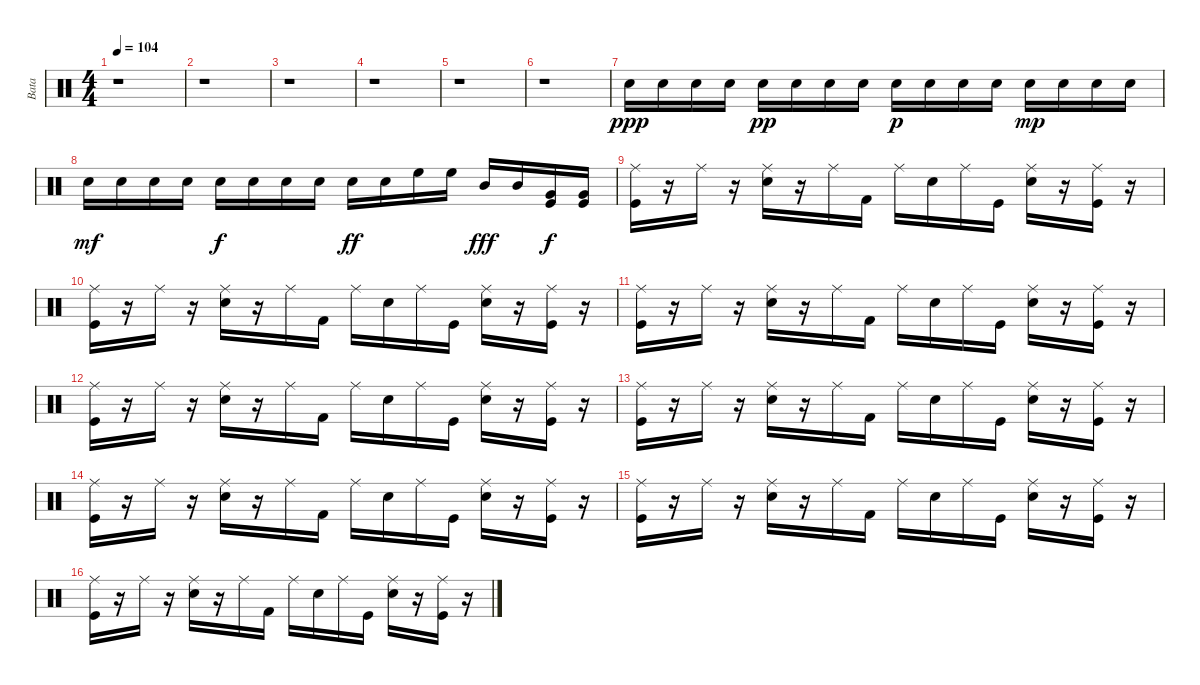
\track ("Bata" "Bata") {instrument percussion}
\staff {score}
\articulation defaults
\ts (4 4)
\tempo 104
\clef neutral
\ks c
r.1{dy ppp} |
r.1 |
r.1 |
r.1 |
r.1 |
r.1 |
"Electric Snare (hit)".16 "Electric Snare (hit)".16 "Electric Snare (hit)".16 "Electric Snare (hit)".16 "Electric Snare (hit)".16{dy pp} "Electric Snare (hit)".16 "Electric Snare (hit)".16 "Electric Snare (hit)".16 "Electric Snare (hit)".16{dy p} "Electric Snare (hit)".16 "Electric Snare (hit)".16 "Electric Snare (hit)".16 "Electric Snare (hit)".16{dy mp} "Electric Snare (hit)".16 "Electric Snare (hit)".16 "Electric Snare (hit)".16 |
"Electric Snare (hit)".16{dy mf} "Electric Snare (hit)".16 "Electric Snare (hit)".16 "Electric Snare (hit)".16 "Electric Snare (hit)".16{dy f} "Electric Snare (hit)".16 "Electric Snare (hit)".16 "Electric Snare (hit)".16 "Electric Snare (hit)".16{dy ff} "Electric Snare (hit)".16 "High Floor Tom (hit)".16 "High Floor Tom (hit)".16 "Mid Tom (hit)".16{dy fff} "Mid Tom (hit)".16 ("Very Low Tom (hit)" "Kick (hit)").16{dy f} ("Very Low Tom (hit)" "Kick (hit)").16 |
("Ride (middle)" "Kick (hit)").16 r.16 "Ride (middle)".16 r.16 ("Ride (middle)" "Electric Snare (hit)").16 r.16 "Ride (middle)".16 "Kick (hit) 2".16 "Ride (middle)".16 "Electric Snare (hit)".16 "Ride (middle)".16 "Kick (hit)".16 ("Ride (middle)" "Electric Snare (hit)").16 r.16 ("Ride (middle)" "Kick (hit)").16 r.16 |
("Ride (middle)" "Kick (hit)").16 r.16 "Ride (middle)".16 r.16 ("Ride (middle)" "Electric Snare (hit)").16 r.16 "Ride (middle)".16 "Kick (hit) 2".16 "Ride (middle)".16 "Electric Snare (hit)".16 "Ride (middle)".16 "Kick (hit)".16 ("Ride (middle)" "Electric Snare (hit)").16 r.16 ("Ride (middle)" "Kick (hit)").16 r.16 |
("Ride (middle)" "Kick (hit)").16 r.16 "Ride (middle)".16 r.16 ("Ride (middle)" "Electric Snare (hit)").16 r.16 "Ride (middle)".16 "Kick (hit) 2".16 "Ride (middle)".16 "Electric Snare (hit)".16 "Ride (middle)".16 "Kick (hit)".16 ("Ride (middle)" "Electric Snare (hit)").16 r.16 ("Ride (middle)" "Kick (hit)").16 r.16 |
("Ride (middle)" "Kick (hit)").16 r.16 "Ride (middle)".16 r.16 ("Ride (middle)" "Electric Snare (hit)").16 r.16 "Ride (middle)".16 "Kick (hit) 2".16 "Ride (middle)".16 "Electric Snare (hit)".16 "Ride (middle)".16 "Kick (hit)".16 ("Ride (middle)" "Electric Snare (hit)").16 r.16 ("Ride (middle)" "Kick (hit)").16 r.16 |
("Ride (middle)" "Kick (hit)").16 r.16 "Ride (middle)".16 r.16 ("Ride (middle)" "Electric Snare (hit)").16 r.16 "Ride (middle)".16 "Kick (hit) 2".16 "Ride (middle)".16 "Electric Snare (hit)".16 "Ride (middle)".16 "Kick (hit)".16 ("Ride (middle)" "Electric Snare (hit)").16 r.16 ("Ride (middle)" "Kick (hit)").16 r.16 |
("Ride (middle)" "Kick (hit)").16 r.16 "Ride (middle)".16 r.16 ("Ride (middle)" "Electric Snare (hit)").16 r.16 "Ride (middle)".16 "Kick (hit) 2".16 "Ride (middle)".16 "Electric Snare (hit)".16 "Ride (middle)".16 "Kick (hit)".16 ("Ride (middle)" "Electric Snare (hit)").16 r.16 ("Ride (middle)" "Kick (hit)").16 r.16 |
("Ride (middle)" "Kick (hit)").16 r.16 "Ride (middle)".16 r.16 ("Ride (middle)" "Electric Snare (hit)").16 r.16 "Ride (middle)".16 "Kick (hit) 2".16 "Ride (middle)".16 "Electric Snare (hit)".16 "Ride (middle)".16 "Kick (hit)".16 ("Ride (middle)" "Electric Snare (hit)").16 r.16 ("Ride (middle)" "Kick (hit)").16 r.16 |
("Ride (middle)" "Kick (hit)").16 r.16 "Ride (middle)".16 r.16 ("Ride (middle)" "Electric Snare (hit)").16 r.16 "Ride (middle)".16 "Kick (hit) 2".16 "Ride (middle)".16 "Electric Snare (hit)".16 "Ride (middle)".16 "Kick (hit)".16 ("Ride (middle)" "Electric Snare (hit)").16 r.16 ("Ride (middle)" "Kick (hit)").16 r.16
